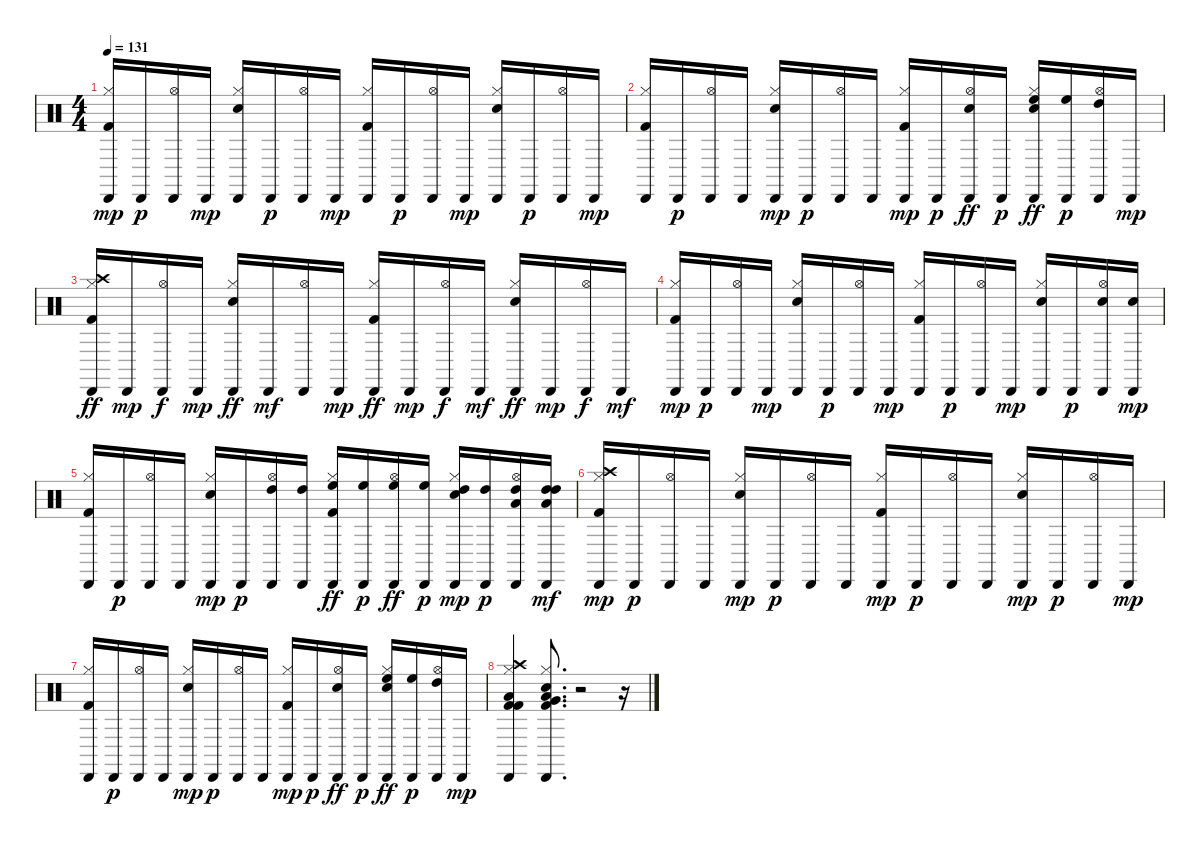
\track "" {instrument percussion}
\staff {score}
\articulation defaults
\ts (4 4)
\tempo 131
\clef neutral
\ks c
("Kick (hit) 2" "Hi-Hat (closed)" "Cabasa (hit)").16{dy mp} "Cabasa (hit)".16{dy p} ("Hi-Hat (open)" "Cabasa (hit)").16 "Cabasa (hit)".16{dy mp} ("Snare (hit) 2" "Hi-Hat (closed)" "Cabasa (hit)").16 "Cabasa (hit)".16{dy p} ("Hi-Hat (open)" "Cabasa (hit)").16 "Cabasa (hit)".16{dy mp} ("Kick (hit) 2" "Hi-Hat (closed)" "Cabasa (hit)").16 "Cabasa (hit)".16{dy p} ("Hi-Hat (open)" "Cabasa (hit)").16 "Cabasa (hit)".16{dy mp} ("Snare (hit) 2" "Hi-Hat (closed)" "Cabasa (hit)").16 "Cabasa (hit)".16{dy p} ("Hi-Hat (open)" "Cabasa (hit)").16 "Cabasa (hit)".16{dy mp} |
("Kick (hit) 2" "Hi-Hat (closed)" "Cabasa (hit)").16 "Cabasa (hit)".16{dy p} ("Hi-Hat (open)" "Cabasa (hit)").16 "Cabasa (hit)".16 ("Snare (hit) 2" "Hi-Hat (closed)" "Cabasa (hit)").16{dy mp} "Cabasa (hit)".16{dy p} ("Hi-Hat (open)" "Cabasa (hit)").16 "Cabasa (hit)".16 ("Kick (hit) 2" "Hi-Hat (closed)" "Cabasa (hit)").16{dy mp} "Cabasa (hit)".16{dy p} ("Hi-Hat (open)" "Cabasa (hit)" "Electric Snare (hit)").16{dy ff} "Cabasa (hit)".16{dy p} ("Snare (hit) 2" "Hi-Hat (closed)" "Cabasa (hit)" "High Floor Tom (hit)").16{dy ff} ("Cabasa (hit)" "High Floor Tom (hit)").16{dy p} ("Hi-Hat (open)" "High Tom (hit)" "Cabasa (hit)").16 "Cabasa (hit)".16{dy mp} |
("Kick (hit) 2" "Hi-Hat (closed)" "Crash high (hit)" "Cabasa (hit)").16{dy ff} "Cabasa (hit)".16{dy mp} ("Hi-Hat (open)" "Cabasa (hit)").16{dy f} "Cabasa (hit)".16{dy mp} ("Snare (hit) 2" "Hi-Hat (closed)" "Cabasa (hit)").16{dy ff} "Cabasa (hit)".16{dy mf} ("Hi-Hat (open)" "Cabasa (hit)").16 "Cabasa (hit)".16{dy mp} ("Kick (hit) 2" "Hi-Hat (closed)" "Cabasa (hit)").16{dy ff} "Cabasa (hit)".16{dy mp} ("Hi-Hat (open)" "Cabasa (hit)").16{dy f} "Cabasa (hit)".16{dy mf} ("Snare (hit) 2" "Hi-Hat (closed)" "Cabasa (hit)").16{dy ff} "Cabasa (hit)".16{dy mp} ("Hi-Hat (open)" "Cabasa (hit)").16{dy f} "Cabasa (hit)".16{dy mf} |
("Kick (hit) 2" "Hi-Hat (closed)" "Cabasa (hit)").16{dy mp} "Cabasa (hit)".16{dy p} ("Hi-Hat (open)" "Cabasa (hit)").16 "Cabasa (hit)".16{dy mp} ("Snare (hit) 2" "Hi-Hat (closed)" "Cabasa (hit)").16 "Cabasa (hit)".16{dy p} ("Hi-Hat (open)" "Cabasa (hit)").16 "Cabasa (hit)".16{dy mp} ("Kick (hit) 2" "Hi-Hat (closed)" "Cabasa (hit)").16 "Cabasa (hit)".16{dy p} ("Hi-Hat (open)" "Cabasa (hit)").16 "Cabasa (hit)".16{dy mp} ("Snare (hit) 2" "Hi-Hat (closed)" "Cabasa (hit)").16 "Cabasa (hit)".16{dy p} ("Snare (hit) 2" "Hi-Hat (open)" "Cabasa (hit)").16 ("Snare (hit) 2" "Cabasa (hit)").16{dy mp} |
("Kick (hit) 2" "Hi-Hat (closed)" "Cabasa (hit)").16 "Cabasa (hit)".16{dy p} ("Hi-Hat (open)" "Cabasa (hit)").16 "Cabasa (hit)".16 ("Snare (hit) 2" "Hi-Hat (closed)" "Cabasa (hit)").16{dy mp} "Cabasa (hit)".16{dy p} ("Hi-Hat (open)" "High Tom (hit)" "Cabasa (hit)").16 ("High Tom (hit)" "Cabasa (hit)").16 ("Kick (hit) 2" "Hi-Hat (closed)" "Cabasa (hit)" "High Floor Tom (hit)").16{dy ff} ("Cabasa (hit)" "High Floor Tom (hit)").16{dy p} ("Hi-Hat (open)" "Cabasa (hit)" "High Floor Tom (hit)").16{dy ff} ("Cabasa (hit)" "High Floor Tom (hit)").16{dy p} ("Snare (hit) 2" "Hi-Hat (closed)" "High Tom (hit)" "Cabasa (hit)").16{dy mp} ("High Tom (hit)" "Cabasa (hit)").16{dy p} ("Low Tom (hit)" "Hi-Hat (open)" "High Tom (hit)" "Cabasa (hit)").16 ("Low Tom (hit)" "High Tom (hit)" "Cabasa (hit)" "High Tom (hit)").16{dy mf} |
("Kick (hit) 2" "Hi-Hat (closed)" "Crash high (hit)" "Cabasa (hit)").16{dy mp} "Cabasa (hit)".16{dy p} ("Hi-Hat (open)" "Cabasa (hit)").16 "Cabasa (hit)".16 ("Snare (hit) 2" "Hi-Hat (closed)" "Cabasa (hit)").16{dy mp} "Cabasa (hit)".16{dy p} ("Hi-Hat (open)" "Cabasa (hit)").16 "Cabasa (hit)".16 ("Kick (hit) 2" "Hi-Hat (closed)" "Cabasa (hit)").16{dy mp} "Cabasa (hit)".16{dy p} ("Hi-Hat (open)" "Cabasa (hit)").16 "Cabasa (hit)".16 ("Snare (hit) 2" "Hi-Hat (closed)" "Cabasa (hit)").16{dy mp} "Cabasa (hit)".16{dy p} ("Hi-Hat (open)" "Cabasa (hit)").16 "Cabasa (hit)".16{dy mp} |
("Kick (hit) 2" "Hi-Hat (closed)" "Cabasa (hit)").16 "Cabasa (hit)".16{dy p} ("Hi-Hat (open)" "Cabasa (hit)").16 "Cabasa (hit)".16 ("Snare (hit) 2" "Hi-Hat (closed)" "Cabasa (hit)").16{dy mp} "Cabasa (hit)".16{dy p} ("Hi-Hat (open)" "Cabasa (hit)").16 "Cabasa (hit)".16 ("Kick (hit) 2" "Hi-Hat (closed)" "Cabasa (hit)").16{dy mp} "Cabasa (hit)".16{dy p} ("Hi-Hat (open)" "Cabasa (hit)" "Electric Snare (hit)").16{dy ff} "Cabasa (hit)".16{dy p} ("Snare (hit) 2" "Hi-Hat (closed)" "Cabasa (hit)" "High Floor Tom (hit)").16{dy ff} ("Cabasa (hit)" "High Floor Tom (hit)").16{dy p} ("Hi-Hat (open)" "High Tom (hit)" "Cabasa (hit)").16 "Cabasa (hit)".16{dy mp} |
("Kick (hit) 2" "Hi-Hat (closed)" "Crash high (hit)" "Cabasa (hit)" "Low Tom (hit)" "Kick (hit) 2").4 ("Hi-Hat (closed)" "Cabasa (hit)" "Kick (hit) 2" "Electric Snare (hit)" "Very Low Tom (hit)" "Low Tom (hit)").8{d} r.2 r.16
